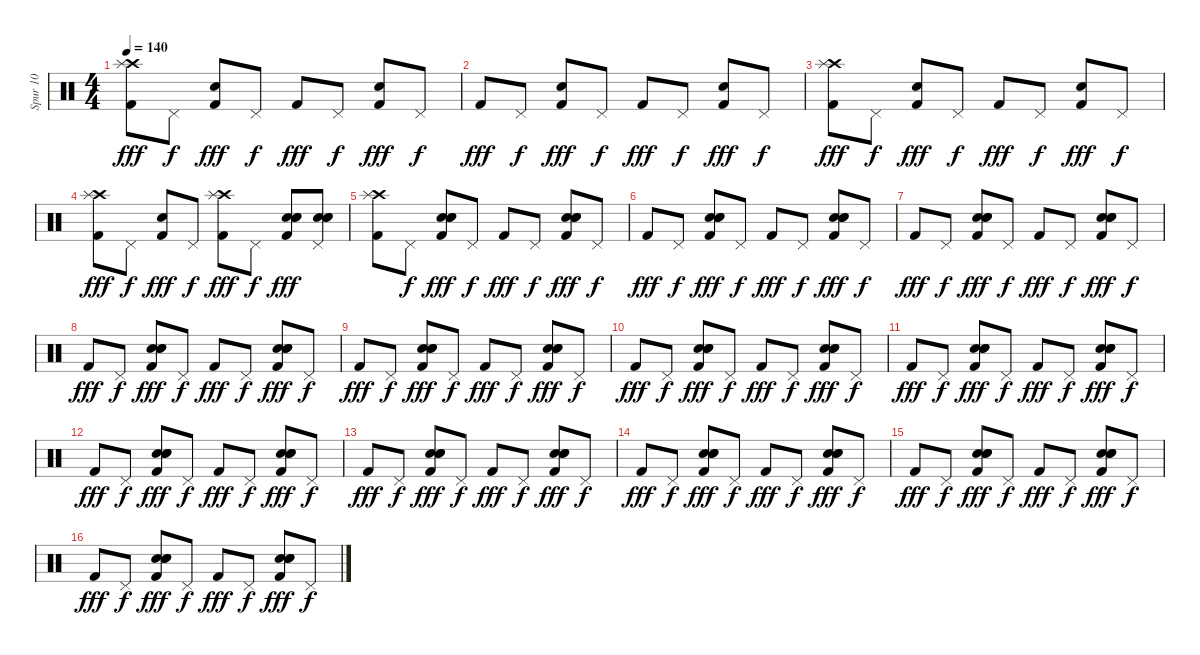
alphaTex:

\track ("Spur 10" "Spur 10") {instrument percussion}
\staff {score}
\articulation defaults
\ts (4 4)
\tempo 140
\clef neutral
\ks c
("Crash high (hit)" "Splash (hit)" "Kick (hit) 2").8{dy fff} "Pedal Hi-Hat (hit)".8{dy f} ("Snare (hit) 2" "Kick (hit) 2").8{dy fff} "Pedal Hi-Hat (hit)".8{dy f} "Kick (hit) 2".8{dy fff} "Pedal Hi-Hat (hit)".8{dy f} ("Snare (hit) 2" "Kick (hit) 2").8{dy fff} "Pedal Hi-Hat (hit)".8{dy f} |
"Kick (hit) 2".8{dy fff} "Pedal Hi-Hat (hit)".8{dy f} ("Snare (hit) 2" "Kick (hit) 2").8{dy fff} "Pedal Hi-Hat (hit)".8{dy f} "Kick (hit) 2".8{dy fff} "Pedal Hi-Hat (hit)".8{dy f} ("Snare (hit) 2" "Kick (hit) 2").8{dy fff} "Pedal Hi-Hat (hit)".8{dy f} |
("Crash high (hit)" "Splash (hit)" "Kick (hit) 2").8{dy fff} "Pedal Hi-Hat (hit)".8{dy f} ("Snare (hit) 2" "Kick (hit) 2").8{dy fff} "Pedal Hi-Hat (hit)".8{dy f} "Kick (hit) 2".8{dy fff} "Pedal Hi-Hat (hit)".8{dy f} ("Snare (hit) 2" "Kick (hit) 2").8{dy fff} "Pedal Hi-Hat (hit)".8{dy f} |
("Crash high (hit)" "Splash (hit)" "Kick (hit) 2").8{dy fff} "Pedal Hi-Hat (hit)".8{dy f} ("Snare (hit) 2" "Kick (hit) 2").8{dy fff} "Pedal Hi-Hat (hit)".8{dy f} ("Crash high (hit)" "Splash (hit)" "Kick (hit) 2").8{dy fff} "Pedal Hi-Hat (hit)".8{dy f} ("Hand Clap (hit)" "Electric Snare (hit)" "Snare (hit) 2" "Kick (hit) 2").8{dy fff} ("Pedal Hi-Hat (hit)" "Electric Snare (hit)" "Hand Clap (hit)" "Snare (hit) 2").8 |
("Crash high (hit)" "Splash (hit)" "Kick (hit) 2").8 "Pedal Hi-Hat (hit)".8{dy f} ("Hand Clap (hit)" "Electric Snare (hit)" "Snare (hit) 2" "Kick (hit) 2").8{dy fff} "Pedal Hi-Hat (hit)".8{dy f} "Kick (hit) 2".8{dy fff} "Pedal Hi-Hat (hit)".8{dy f} ("Hand Clap (hit)" "Electric Snare (hit)" "Snare (hit) 2" "Kick (hit) 2").8{dy fff} "Pedal Hi-Hat (hit)".8{dy f} |
"Kick (hit) 2".8{dy fff} "Pedal Hi-Hat (hit)".8{dy f} ("Hand Clap (hit)" "Electric Snare (hit)" "Snare (hit) 2" "Kick (hit) 2").8{dy fff} "Pedal Hi-Hat (hit)".8{dy f} "Kick (hit) 2".8{dy fff} "Pedal Hi-Hat (hit)".8{dy f} ("Hand Clap (hit)" "Electric Snare (hit)" "Snare (hit) 2" "Kick (hit) 2").8{dy fff} "Pedal Hi-Hat (hit)".8{dy f} |
"Kick (hit) 2".8{dy fff} "Pedal Hi-Hat (hit)".8{dy f} ("Electric Snare (hit)" "Hand Clap (hit)" "Snare (hit) 2" "Kick (hit) 2").8{dy fff} "Pedal Hi-Hat (hit)".8{dy f} "Kick (hit) 2".8{dy fff} "Pedal Hi-Hat (hit)".8{dy f} ("Hand Clap (hit)" "Electric Snare (hit)" "Snare (hit) 2" "Kick (hit) 2").8{dy fff} "Pedal Hi-Hat (hit)".8{dy f} |
"Kick (hit) 2".8{dy fff} "Pedal Hi-Hat (hit)".8{dy f} ("Electric Snare (hit)" "Hand Clap (hit)" "Snare (hit) 2" "Kick (hit) 2").8{dy fff} "Pedal Hi-Hat (hit)".8{dy f} "Kick (hit) 2".8{dy fff} "Pedal Hi-Hat (hit)".8{dy f} ("Hand Clap (hit)" "Electric Snare (hit)" "Snare (hit) 2" "Kick (hit) 2").8{dy fff} "Pedal Hi-Hat (hit)".8{dy f} |
"Kick (hit) 2".8{dy fff} "Pedal Hi-Hat (hit)".8{dy f} ("Electric Snare (hit)" "Hand Clap (hit)" "Snare (hit) 2" "Kick (hit) 2").8{dy fff} "Pedal Hi-Hat (hit)".8{dy f} "Kick (hit) 2".8{dy fff} "Pedal Hi-Hat (hit)".8{dy f} ("Electric Snare (hit)" "Hand Clap (hit)" "Snare (hit) 2" "Kick (hit) 2").8{dy fff} "Pedal Hi-Hat (hit)".8{dy f} |
"Kick (hit) 2".8{dy fff} "Pedal Hi-Hat (hit)".8{dy f} ("Hand Clap (hit)" "Electric Snare (hit)" "Snare (hit) 2" "Kick (hit) 2").8{dy fff} "Pedal Hi-Hat (hit)".8{dy f} "Kick (hit) 2".8{dy fff} "Pedal Hi-Hat (hit)".8{dy f} ("Hand Clap (hit)" "Electric Snare (hit)" "Snare (hit) 2" "Kick (hit) 2").8{dy fff} "Pedal Hi-Hat (hit)".8{dy f} |
"Kick (hit) 2".8{dy fff} "Pedal Hi-Hat (hit)".8{dy f} ("Electric Snare (hit)" "Hand Clap (hit)" "Snare (hit) 2" "Kick (hit) 2").8{dy fff} "Pedal Hi-Hat (hit)".8{dy f} "Kick (hit) 2".8{dy fff} "Pedal Hi-Hat (hit)".8{dy f} ("Electric Snare (hit)" "Hand Clap (hit)" "Snare (hit) 2" "Kick (hit) 2").8{dy fff} "Pedal Hi-Hat (hit)".8{dy f} |
"Kick (hit) 2".8{dy fff} "Pedal Hi-Hat (hit)".8{dy f} ("Hand Clap (hit)" "Electric Snare (hit)" "Snare (hit) 2" "Kick (hit) 2").8{dy fff} "Pedal Hi-Hat (hit)".8{dy f} "Kick (hit) 2".8{dy fff} "Pedal Hi-Hat (hit)".8{dy f} ("Hand Clap (hit)" "Electric Snare (hit)" "Snare (hit) 2" "Kick (hit) 2").8{dy fff} "Pedal Hi-Hat (hit)".8{dy f} |
"Kick (hit) 2".8{dy fff} "Pedal Hi-Hat (hit)".8{dy f} ("Electric Snare (hit)" "Hand Clap (hit)" "Snare (hit) 2" "Kick (hit) 2").8{dy fff} "Pedal Hi-Hat (hit)".8{dy f} "Kick (hit) 2".8{dy fff} "Pedal Hi-Hat (hit)".8{dy f} ("Hand Clap (hit)" "Electric Snare (hit)" "Snare (hit) 2" "Kick (hit) 2").8{dy fff} "Pedal Hi-Hat (hit)".8{dy f} |
"Kick (hit) 2".8{dy fff} "Pedal Hi-Hat (hit)".8{dy f} ("Electric Snare (hit)" "Hand Clap (hit)" "Snare (hit) 2" "Kick (hit) 2").8{dy fff} "Pedal Hi-Hat (hit)".8{dy f} "Kick (hit) 2".8{dy fff} "Pedal Hi-Hat (hit)".8{dy f} ("Hand Clap (hit)" "Electric Snare (hit)" "Snare (hit) 2" "Kick (hit) 2").8{dy fff} "Pedal Hi-Hat (hit)".8{dy f} |
"Kick (hit) 2".8{dy fff} "Pedal Hi-Hat (hit)".8{dy f} ("Electric Snare (hit)" "Hand Clap (hit)" "Snare (hit) 2" "Kick (hit) 2").8{dy fff} "Pedal Hi-Hat (hit)".8{dy f} "Kick (hit) 2".8{dy fff} "Pedal Hi-Hat (hit)".8{dy f} ("Electric Snare (hit)" "Hand Clap (hit)" "Snare (hit) 2" "Kick (hit) 2").8{dy fff} "Pedal Hi-Hat (hit)".8{dy f} |
"Kick (hit) 2".8{dy fff} "Pedal Hi-Hat (hit)".8{dy f} ("Electric Snare (hit)" "Hand Clap (hit)" "Snare (hit) 2" "Kick (hit) 2").8{dy fff} "Pedal Hi-Hat (hit)".8{dy f} "Kick (hit) 2".8{dy fff} "Pedal Hi-Hat (hit)".8{dy f} ("Hand Clap (hit)" "Electric Snare (hit)" "Snare (hit) 2" "Kick (hit) 2").8{dy fff} "Pedal Hi-Hat (hit)".8{dy f}
